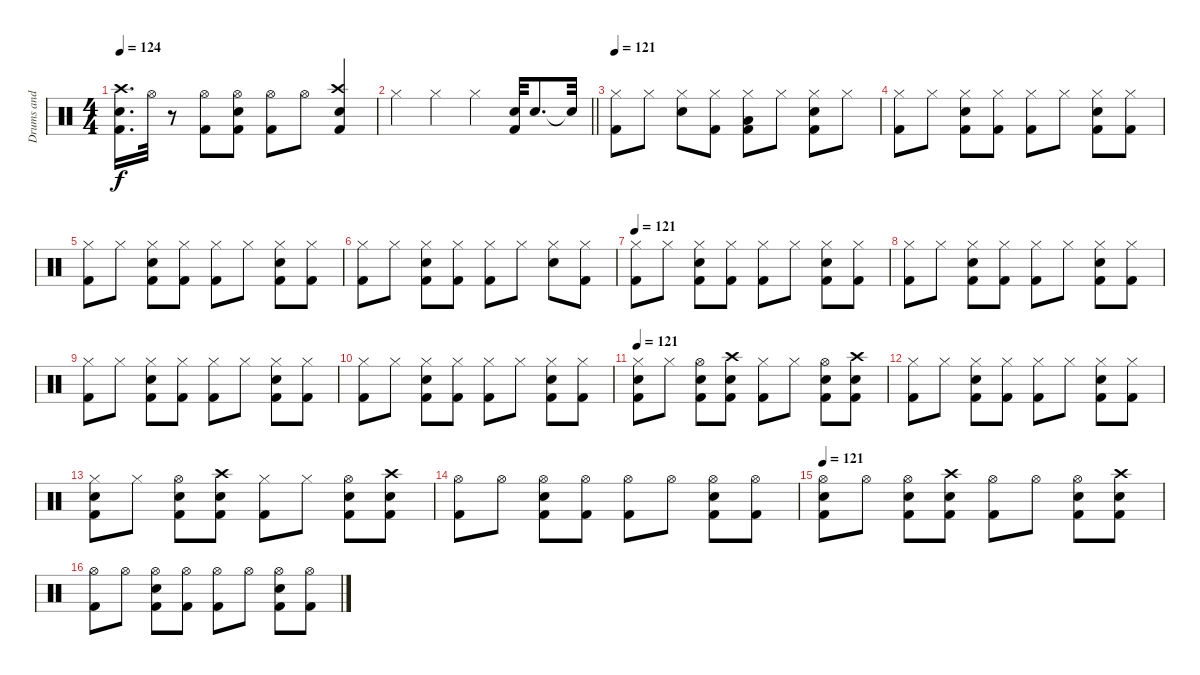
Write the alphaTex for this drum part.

\track ("Drums and Percussie" "Drums and ") {instrument percussion}
\staff {score}
\articulation defaults
\ts (4 4)
\tempo 124
\clef neutral
\ks c
("Snare (hit) 2" "Crash high (hit)" "Kick (hit) 2").16{d dy f} "Hi-Hat (open)".32 r.8 ("Hi-Hat (open)" "Kick (hit) 2").8 ("Hi-Hat (open)" "Snare (hit) 2" "Kick (hit) 2").8 ("Hi-Hat (open)" "Kick (hit) 2").8 "Hi-Hat (open)".8 ("Snare (hit) 2" "Kick (hit) 2" "Crash high (hit)").4 |
\barLineRight lightlight "Hi-Hat (closed)".4 "Hi-Hat (closed)".4 "Hi-Hat (closed)".4
("Kick (hit) 2" "Snare (hit) 2").32 "Snare (hit) 2".8{d} "Snare (hit)"{t}.32 |
\tempo 121
("Kick (hit) 2" "Hi-Hat (closed)").8 "Hi-Hat (closed)".8 ("Hi-Hat (closed)" "Snare (hit) 2").8 ("Kick (hit) 2" "Hi-Hat (closed)").8 ("Hi-Hat (closed)" "Low Floor Tom (hit)" "Kick (hit) 2").8 "Hi-Hat (closed)".8 ("Hi-Hat (closed)" "Kick (hit) 2" "Snare (hit) 2").8 "Hi-Hat (closed)".8 |
("Hi-Hat (closed)" "Kick (hit) 2").8 "Hi-Hat (closed)".8 ("Snare (hit) 2" "Hi-Hat (closed)" "Kick (hit) 2").8 ("Kick (hit) 2" "Hi-Hat (closed)").8 ("Kick (hit) 2" "Hi-Hat (closed)").8 "Hi-Hat (closed)".8 ("Kick (hit) 2" "Hi-Hat (closed)" "Snare (hit) 2").8 ("Kick (hit) 2" "Hi-Hat (closed)").8 |
("Hi-Hat (closed)" "Kick (hit) 2").8 "Hi-Hat (closed)".8 ("Kick (hit) 2" "Hi-Hat (closed)" "Snare (hit) 2").8 ("Kick (hit) 2" "Hi-Hat (closed)").8 ("Kick (hit) 2" "Hi-Hat (closed)").8 "Hi-Hat (closed)".8 ("Hi-Hat (closed)" "Snare (hit) 2" "Kick (hit) 2").8 ("Kick (hit) 2" "Hi-Hat (closed)").8 |
("Hi-Hat (closed)" "Kick (hit) 2").8 "Hi-Hat (closed)".8 ("Kick (hit) 2" "Snare (hit) 2" "Hi-Hat (closed)").8 ("Kick (hit) 2" "Hi-Hat (closed)").8 ("Kick (hit) 2" "Hi-Hat (closed)").8 "Hi-Hat (closed)".8 ("Snare (hit) 2" "Hi-Hat (closed)").8 ("Kick (hit) 2" "Hi-Hat (closed)").8 |
\tempo 121
("Hi-Hat (closed)" "Kick (hit) 2").8 "Hi-Hat (closed)".8 ("Kick (hit) 2" "Snare (hit) 2" "Hi-Hat (closed)").8 ("Kick (hit) 2" "Hi-Hat (closed)").8 ("Kick (hit) 2" "Hi-Hat (closed)").8 "Hi-Hat (closed)".8 ("Snare (hit) 2" "Hi-Hat (closed)" "Kick (hit) 2").8 ("Kick (hit) 2" "Hi-Hat (closed)").8 |
("Hi-Hat (closed)" "Kick (hit) 2").8 "Hi-Hat (closed)".8 ("Kick (hit) 2" "Snare (hit) 2" "Hi-Hat (closed)").8 ("Kick (hit) 2" "Hi-Hat (closed)").8 ("Kick (hit) 2" "Hi-Hat (closed)").8 "Hi-Hat (closed)".8 ("Snare (hit) 2" "Hi-Hat (closed)" "Kick (hit) 2").8 ("Kick (hit) 2" "Hi-Hat (closed)").8 |
("Hi-Hat (closed)" "Kick (hit) 2").8 "Hi-Hat (closed)".8 ("Kick (hit) 2" "Snare (hit) 2" "Hi-Hat (closed)").8 ("Kick (hit) 2" "Hi-Hat (closed)").8 ("Kick (hit) 2" "Hi-Hat (closed)").8 "Hi-Hat (closed)".8 ("Snare (hit) 2" "Hi-Hat (closed)" "Kick (hit) 2").8 ("Kick (hit) 2" "Hi-Hat (closed)").8 |
("Hi-Hat (closed)" "Kick (hit) 2").8 "Hi-Hat (closed)".8 ("Kick (hit) 2" "Snare (hit) 2" "Hi-Hat (closed)").8 ("Kick (hit) 2" "Hi-Hat (closed)").8 ("Kick (hit) 2" "Hi-Hat (closed)").8 "Hi-Hat (closed)".8 ("Snare (hit) 2" "Hi-Hat (closed)" "Kick (hit) 2").8 ("Kick (hit) 2" "Hi-Hat (closed)").8 |
\tempo 121
("Hi-Hat (closed)" "Snare (hit) 2" "Kick (hit) 2").8 "Hi-Hat (closed)".8 ("Snare (hit) 2" "Kick (hit) 2" "Hi-Hat (open)").8 ("Kick (hit) 2" "Snare (hit) 2" "Crash high (hit)").8 ("Kick (hit) 2" "Hi-Hat (closed)").8 "Hi-Hat (closed)".8 ("Snare (hit) 2" "Kick (hit) 2" "Hi-Hat (open)").8 ("Snare (hit) 2" "Kick (hit) 2" "Crash high (hit)").8 |
("Kick (hit) 2" "Hi-Hat (closed)").8 "Hi-Hat (closed)".8 ("Kick (hit) 2" "Snare (hit) 2" "Hi-Hat (closed)").8 ("Kick (hit) 2" "Hi-Hat (closed)").8 ("Kick (hit) 2" "Hi-Hat (closed)").8 "Hi-Hat (closed)".8 ("Snare (hit) 2" "Hi-Hat (closed)" "Kick (hit) 2").8 ("Kick (hit) 2" "Hi-Hat (closed)").8 |
("Hi-Hat (closed)" "Snare (hit) 2" "Kick (hit) 2").8 "Hi-Hat (closed)".8 ("Snare (hit) 2" "Kick (hit) 2" "Hi-Hat (open)").8 ("Kick (hit) 2" "Snare (hit) 2" "Crash high (hit)").8 ("Kick (hit) 2" "Hi-Hat (closed)").8 "Hi-Hat (closed)".8 ("Snare (hit) 2" "Kick (hit) 2" "Hi-Hat (open)").8 ("Snare (hit) 2" "Kick (hit) 2" "Crash high (hit)").8 |
("Kick (hit) 2" "Hi-Hat (open)").8 "Hi-Hat (open)".8 ("Hi-Hat (open)" "Kick (hit) 2" "Snare (hit) 2").8 ("Hi-Hat (open)" "Kick (hit) 2").8 ("Hi-Hat (open)" "Kick (hit) 2").8 "Hi-Hat (open)".8 ("Snare (hit) 2" "Hi-Hat (open)" "Kick (hit) 2").8 ("Kick (hit) 2" "Hi-Hat (open)").8 |
\tempo 121
("Snare (hit) 2" "Hi-Hat (open)" "Kick (hit) 2").8 "Hi-Hat (open)".8 ("Snare (hit) 2" "Kick (hit) 2" "Hi-Hat (open)").8 ("Crash high (hit)" "Snare (hit) 2" "Kick (hit) 2").8 ("Kick (hit) 2" "Hi-Hat (open)").8 "Hi-Hat (open)".8 ("Snare (hit) 2" "Hi-Hat (open)" "Kick (hit) 2").8 ("Kick (hit) 2" "Crash high (hit)" "Snare (hit) 2").8 |
("Kick (hit) 2" "Hi-Hat (open)").8 "Hi-Hat (open)".8 ("Hi-Hat (open)" "Kick (hit) 2" "Snare (hit) 2").8 ("Hi-Hat (open)" "Kick (hit) 2").8 ("Hi-Hat (open)" "Kick (hit) 2").8 "Hi-Hat (open)".8 ("Hi-Hat (open)" "Snare (hit) 2" "Kick (hit) 2").8 ("Kick (hit) 2" "Hi-Hat (open)").8
